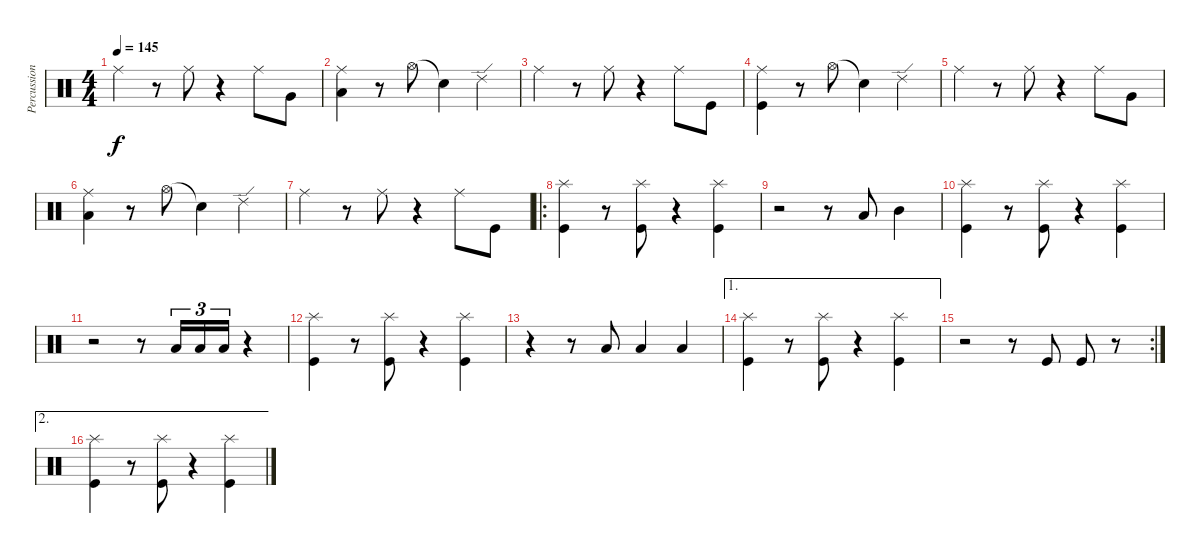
\track ("Percussion" "Percussion") {instrument percussion}
\staff {score}
\articulation defaults
\ts (4 4)
\tempo 145
\clef neutral
\ks c "Ride (middle)".4{dy f}
r.8 "Ride (middle)".8 r.4 "Ride (middle)".8 "Very Low Tom (hit)".8 |
("Ride (middle)" "Low Floor Tom (hit)").4 r.8 "Hi-Hat (open)".8 "Snare (hit)"{t}.4 "Ride (edge) 2".4 |
"Ride (middle)".4 r.8 "Ride (middle)".8 r.4 "Ride (middle)".8 "Kick (hit)".8 |
("Ride (middle)" "Kick (hit)").4 r.8 "Hi-Hat (open)".8 "Snare (hit)"{t}.4 "Ride (edge) 2".4 |
"Ride (middle)".4 r.8 "Ride (middle)".8 r.4 "Ride (middle)".8 "Very Low Tom (hit)".8 |
("Ride (middle)" "Low Floor Tom (hit)").4 r.8 "Hi-Hat (open)".8 "Snare (hit)"{t}.4 "Ride (edge) 2".4 |
"Ride (middle)".4 r.8 "Ride (middle)".8 r.4 "Ride (middle)".8 "Kick (hit)".8 |
\ro
("Splash (hit)" "Kick (hit)").4 r.8 ("Splash (hit)" "Kick (hit)").8 r.4 ("Splash (hit)" "Kick (hit)").4 |
r.2 r.8 "Low Tom (hit)".8 "Mid Tom (hit)".4 |
("Splash (hit)" "Kick (hit)").4 r.8 ("Splash (hit)" "Kick (hit)").8 r.4 ("Splash (hit)" "Kick (hit)").4 |
r.2 r.8 "Low Tom (hit)".16{tu (3 2)} "Low Tom (hit)".16{tu (3 2)} "Low Tom (hit)".16{tu (3 2)} r.4 |
("Splash (hit)" "Kick (hit)").4 r.8 ("Splash (hit)" "Kick (hit)").8 r.4 ("Splash (hit)" "Kick (hit)").4 |
r.4 r.8 "Low Tom (hit)".8 "Low Tom (hit)".4 "Low Tom (hit)".4 |
\ae 1
("Splash (hit)" "Kick (hit)").4 r.8 ("Splash (hit)" "Kick (hit)").8 r.4 ("Splash (hit)" "Kick (hit)").4 |
\rc 2
r.2 r.8 "Kick (hit)".8 "Kick (hit)".8 r.8 |
\ae 2
("Splash (hit)" "Kick (hit)").4 r.8 ("Splash (hit)" "Kick (hit)").8 r.4 ("Splash (hit)" "Kick (hit)").4
